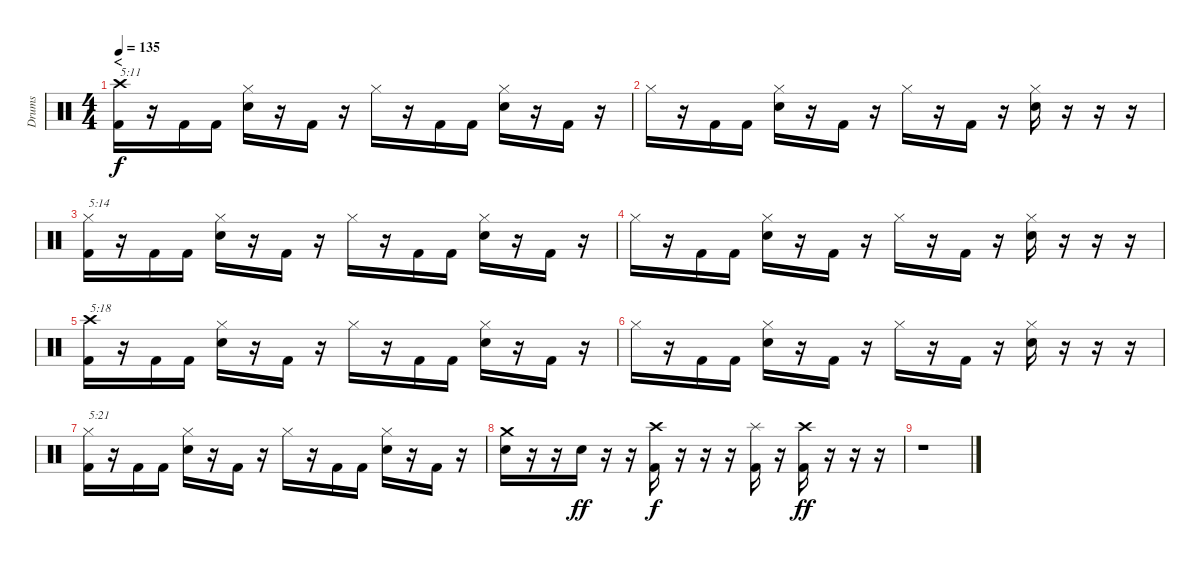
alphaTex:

\track ("Drums" "Drums") {instrument percussion}
\staff {score}
\articulation defaults
\ts (4 4)
\section ("" "<")
\tempo 135
\clef neutral
\ks c
("Crash high (hit)" "Kick (hit) 2").16{txt "5:11" dy f} r.16 "Kick (hit) 2".16 "Kick (hit) 2".16 ("Hi-Hat (closed)" "Electric Snare (hit)").16 r.16 "Kick (hit) 2".16 r.16 "Hi-Hat (closed)".16 r.16 "Kick (hit) 2".16 "Kick (hit) 2".16 ("Hi-Hat (closed)" "Electric Snare (hit)").16 r.16 "Kick (hit) 2".16 r.16 |
"Hi-Hat (closed)".16 r.16 "Kick (hit) 2".16 "Kick (hit) 2".16 ("Hi-Hat (closed)" "Electric Snare (hit)").16 r.16 "Kick (hit) 2".16 r.16 "Hi-Hat (closed)".16 r.16 "Kick (hit) 2".16 r.16 ("Hi-Hat (closed)" "Electric Snare (hit)").16 r.16 r.16 r.16 |
("Hi-Hat (closed)" "Kick (hit) 2").16{txt "5:14"} r.16 "Kick (hit) 2".16 "Kick (hit) 2".16 ("Hi-Hat (closed)" "Electric Snare (hit)").16 r.16 "Kick (hit) 2".16 r.16 "Hi-Hat (closed)".16 r.16 "Kick (hit) 2".16 "Kick (hit) 2".16 ("Hi-Hat (closed)" "Electric Snare (hit)").16 r.16 "Kick (hit) 2".16 r.16 |
"Hi-Hat (closed)".16 r.16 "Kick (hit) 2".16 "Kick (hit) 2".16 ("Hi-Hat (closed)" "Electric Snare (hit)").16 r.16 "Kick (hit) 2".16 r.16 "Hi-Hat (closed)".16 r.16 "Kick (hit) 2".16 r.16 ("Hi-Hat (closed)" "Electric Snare (hit)").16 r.16 r.16 r.16 |
("Crash high (hit)" "Kick (hit) 2").16{txt "5:18"} r.16 "Kick (hit) 2".16 "Kick (hit) 2".16 ("Hi-Hat (closed)" "Electric Snare (hit)").16 r.16 "Kick (hit) 2".16 r.16 "Hi-Hat (closed)".16 r.16 "Kick (hit) 2".16 "Kick (hit) 2".16 ("Hi-Hat (closed)" "Electric Snare (hit)").16 r.16 "Kick (hit) 2".16 r.16 |
"Hi-Hat (closed)".16 r.16 "Kick (hit) 2".16 "Kick (hit) 2".16 ("Hi-Hat (closed)" "Electric Snare (hit)").16 r.16 "Kick (hit) 2".16 r.16 "Hi-Hat (closed)".16 r.16 "Kick (hit) 2".16 r.16 ("Hi-Hat (closed)" "Electric Snare (hit)").16 r.16 r.16 r.16 |
("Hi-Hat (closed)" "Kick (hit) 2").16{txt "5:21"} r.16 "Kick (hit) 2".16 "Kick (hit) 2".16 ("Hi-Hat (closed)" "Electric Snare (hit)").16 r.16 "Kick (hit) 2".16 r.16 "Hi-Hat (closed)".16 r.16 "Kick (hit) 2".16 "Kick (hit) 2".16 ("Hi-Hat (closed)" "Electric Snare (hit)").16 r.16 "Kick (hit) 2".16 r.16 |
("Crash medium (hit)" "Electric Snare (hit)").16 r.16 r.16 "Electric Snare (hit)".16{dy ff} r.16 r.16 ("Crash high (hit)" "Kick (hit) 2").16{dy f} r.16 r.16 r.16 ("Splash (hit)" "Kick (hit) 2").16 r.16 ("Crash high (hit)" "Kick (hit) 2").16{dy ff} r.16 r.16 r.16 |
r.1
